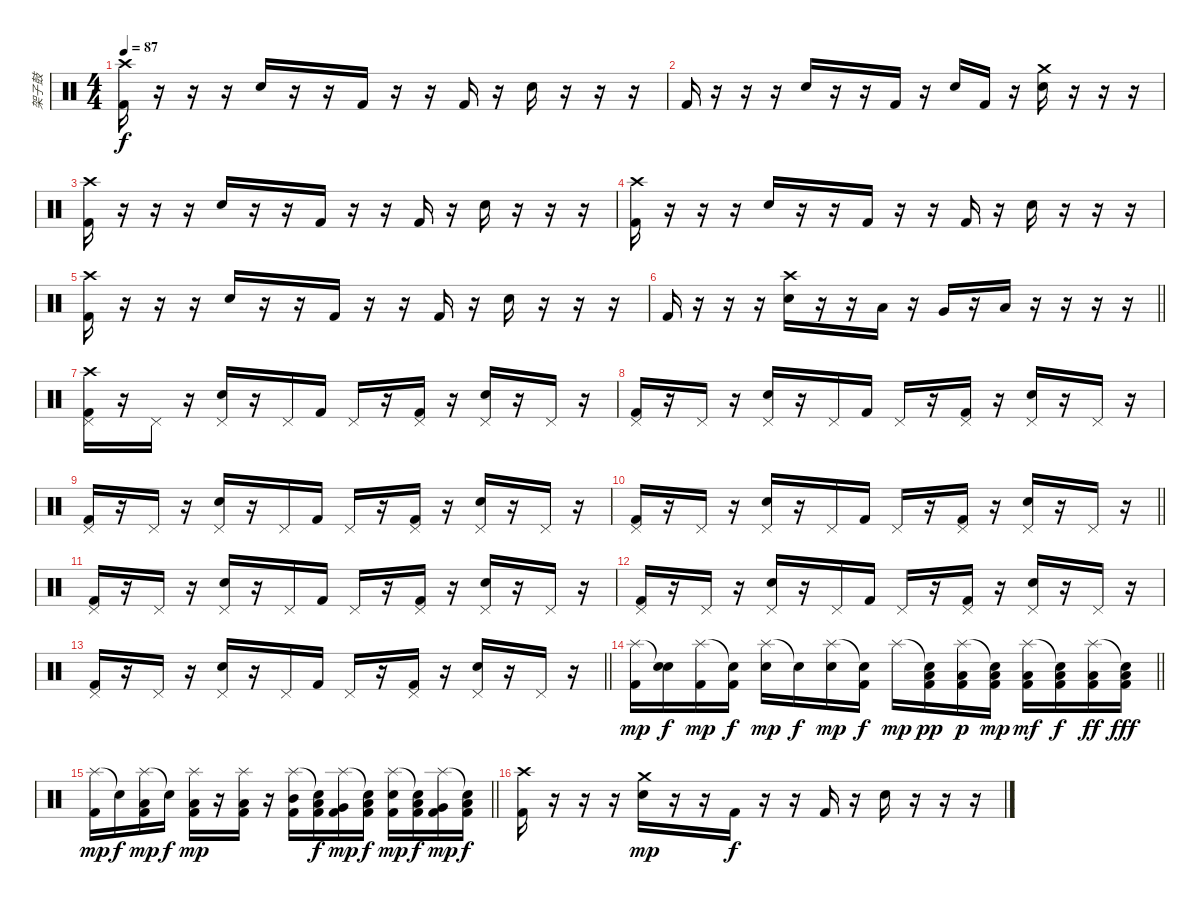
\track ("架子鼓" "架子鼓") {instrument percussion}
\staff {score}
\articulation defaults
\ts (4 4)
\tempo 87
\clef neutral
\ks c
("Crash high (hit)" "Kick (hit) 2").16{dy f} r.16 r.16 r.16 "Electric Snare (hit)".16 r.16 r.16 "Kick (hit) 2".16 r.16 r.16 "Kick (hit) 2".16 r.16 "Electric Snare (hit)".16 r.16 r.16 r.16 |
"Kick (hit) 2".16 r.16 r.16 r.16 "Electric Snare (hit)".16 r.16 r.16 "Kick (hit) 2".16 r.16 "Electric Snare (hit)".16 "Kick (hit) 2".16 r.16 ("Crash medium (hit)" "Electric Snare (hit)").16 r.16 r.16 r.16 |
("Crash high (hit)" "Kick (hit) 2").16 r.16 r.16 r.16 "Electric Snare (hit)".16 r.16 r.16 "Kick (hit) 2".16 r.16 r.16 "Kick (hit) 2".16 r.16 "Electric Snare (hit)".16 r.16 r.16 r.16 |
("Crash high (hit)" "Kick (hit) 2").16 r.16 r.16 r.16 "Electric Snare (hit)".16 r.16 r.16 "Kick (hit) 2".16 r.16 r.16 "Kick (hit) 2".16 r.16 "Electric Snare (hit)".16 r.16 r.16 r.16 |
("Crash high (hit)" "Kick (hit) 2").16 r.16 r.16 r.16 "Electric Snare (hit)".16 r.16 r.16 "Kick (hit) 2".16 r.16 r.16 "Kick (hit) 2".16 r.16 "Electric Snare (hit)".16 r.16 r.16 r.16 |
\barLineRight lightlight "Kick (hit) 2".16
r.16 r.16 r.16 ("Crash high (hit)" "Electric Snare (hit)").16 r.16 r.16 "Low Tom (hit)".16 r.16 "Very Low Tom (hit)".16 r.16 "Low Floor Tom (hit)".16 r.16 r.16 r.16 r.16 |
\section ("" "")
("Crash high (hit)" "Pedal Hi-Hat (hit)" "Kick (hit) 2").16 r.16 "Pedal Hi-Hat (hit)".16 r.16 ("Pedal Hi-Hat (hit)" "Electric Snare (hit)").16 r.16 "Pedal Hi-Hat (hit)".16 "Kick (hit) 2".16 "Pedal Hi-Hat (hit)".16 r.16 ("Pedal Hi-Hat (hit)" "Kick (hit) 2").16 r.16 ("Pedal Hi-Hat (hit)" "Electric Snare (hit)").16 r.16 "Pedal Hi-Hat (hit)".16 r.16 |
("Pedal Hi-Hat (hit)" "Kick (hit) 2").16 r.16 "Pedal Hi-Hat (hit)".16 r.16 ("Pedal Hi-Hat (hit)" "Electric Snare (hit)").16 r.16 "Pedal Hi-Hat (hit)".16 "Kick (hit) 2".16 "Pedal Hi-Hat (hit)".16 r.16 ("Pedal Hi-Hat (hit)" "Kick (hit) 2").16 r.16 ("Pedal Hi-Hat (hit)" "Electric Snare (hit)").16 r.16 "Pedal Hi-Hat (hit)".16 r.16 |
("Pedal Hi-Hat (hit)" "Kick (hit) 2").16 r.16 "Pedal Hi-Hat (hit)".16 r.16 ("Pedal Hi-Hat (hit)" "Electric Snare (hit)").16 r.16 "Pedal Hi-Hat (hit)".16 "Kick (hit) 2".16 "Pedal Hi-Hat (hit)".16 r.16 ("Pedal Hi-Hat (hit)" "Kick (hit) 2").16 r.16 ("Pedal Hi-Hat (hit)" "Electric Snare (hit)").16 r.16 "Pedal Hi-Hat (hit)".16 r.16 |
\barLineRight lightlight
("Pedal Hi-Hat (hit)" "Kick (hit) 2").16 r.16 "Pedal Hi-Hat (hit)".16 r.16 ("Pedal Hi-Hat (hit)" "Electric Snare (hit)").16 r.16 "Pedal Hi-Hat (hit)".16 "Kick (hit) 2".16 "Pedal Hi-Hat (hit)".16 r.16 ("Pedal Hi-Hat (hit)" "Kick (hit) 2").16 r.16 ("Pedal Hi-Hat (hit)" "Electric Snare (hit)").16 r.16 "Pedal Hi-Hat (hit)".16 r.16 |
("Pedal Hi-Hat (hit)" "Kick (hit) 2").16 r.16 "Pedal Hi-Hat (hit)".16 r.16 ("Pedal Hi-Hat (hit)" "Electric Snare (hit)").16 r.16 "Pedal Hi-Hat (hit)".16 "Kick (hit) 2".16 "Pedal Hi-Hat (hit)".16 r.16 ("Pedal Hi-Hat (hit)" "Kick (hit) 2").16 r.16 ("Pedal Hi-Hat (hit)" "Electric Snare (hit)").16 r.16 "Pedal Hi-Hat (hit)".16 r.16 |
("Pedal Hi-Hat (hit)" "Kick (hit) 2").16 r.16 "Pedal Hi-Hat (hit)".16 r.16 ("Pedal Hi-Hat (hit)" "Electric Snare (hit)").16 r.16 "Pedal Hi-Hat (hit)".16 "Kick (hit) 2".16 "Pedal Hi-Hat (hit)".16 r.16 ("Pedal Hi-Hat (hit)" "Kick (hit) 2").16 r.16 ("Pedal Hi-Hat (hit)" "Electric Snare (hit)").16 r.16 "Pedal Hi-Hat (hit)".16 r.16 |
\barLineRight lightlight
("Pedal Hi-Hat (hit)" "Kick (hit) 2").16 r.16 "Pedal Hi-Hat (hit)".16 r.16 ("Pedal Hi-Hat (hit)" "Electric Snare (hit)").16 r.16 "Pedal Hi-Hat (hit)".16 "Kick (hit) 2".16 "Pedal Hi-Hat (hit)".16 r.16 ("Pedal Hi-Hat (hit)" "Kick (hit) 2").16 r.16 ("Pedal Hi-Hat (hit)" "Electric Snare (hit)").16 r.16 "Pedal Hi-Hat (hit)".16 r.16 |
\section ("" "")
\barLineRight lightlight
("Splash (hit)" "Kick (hit) 2").16{dy mp} ("Snare (hit)"{t} "Snare (hit) 2").16{dy f} ("Splash (hit)" "Kick (hit) 2").16{dy mp} ("Snare (hit)"{t} "Kick (hit) 2").16{dy f} ("Splash (hit)" "Electric Snare (hit)").16{dy mp} "Snare (hit)"{t}.16{dy f} ("Splash (hit)" "Electric Snare (hit)").16{dy mp} ("Snare (hit)"{t} "Kick (hit) 2").16{dy f} "Splash (hit)".16{dy mp} ("Snare (hit)"{t} "Low Floor Tom (hit)" "Kick (hit) 2").16{dy pp} ("Splash (hit)" "Low Floor Tom (hit)" "Kick (hit) 2").16{dy p} ("Snare (hit)"{t} "Low Floor Tom (hit)" "Kick (hit) 2").16{dy mp} ("Splash (hit)" "Low Floor Tom (hit)" "Kick (hit) 2").16{dy mf} ("Snare (hit)"{t} "Low Floor Tom (hit)" "Kick (hit) 2").16{dy f} ("Splash (hit)" "Low Floor Tom (hit)" "Kick (hit) 2").16{dy ff} ("Snare (hit)"{t} "Low Floor Tom (hit)" "Kick (hit) 2").16{dy fff} |
\barLineRight lightlight
("Splash (hit)" "Kick (hit) 2").16{dy mp} "Snare (hit)"{t}.16{dy f} ("Splash (hit)" "Low Tom (hit)" "Kick (hit) 2").16{dy mp} "Snare (hit)"{t}.16{dy f} ("Splash (hit)" "Low Tom (hit)" "Kick (hit) 2").16{dy mp} r.16 ("Splash (hit)" "Low Floor Tom (hit)" "Kick (hit) 2").16 r.16 ("Splash (hit)" "Mid Tom (hit)" "Kick (hit) 2").16 ("Snare (hit)"{t} "Low Tom (hit)" "Kick (hit) 2").16{dy f} ("Splash (hit)" "Very Low Tom (hit)" "Kick (hit) 2").16{dy mp} ("Snare (hit)"{t} "Low Floor Tom (hit)" "Kick (hit) 2").16{dy f} ("Splash (hit)" "Snare (hit) 2" "Kick (hit) 2").16{dy mp} ("Snare (hit)"{t} "Low Tom (hit)" "Kick (hit) 2").16{dy f} ("Splash (hit)" "Very Low Tom (hit)" "Kick (hit) 2").16{dy mp} ("Snare (hit)"{t} "Low Floor Tom (hit)" "Kick (hit) 2").16{dy f} |
\section ("" "")
("Crash high (hit)" "Kick (hit) 2").16 r.16 r.16 r.16 ("Crash medium (hit)" "Electric Snare (hit)").16{dy mp} r.16 r.16 "Kick (hit) 2".16{dy f} r.16 r.16 "Kick (hit) 2".16 r.16 "Electric Snare (hit)".16 r.16 r.16 r.16
